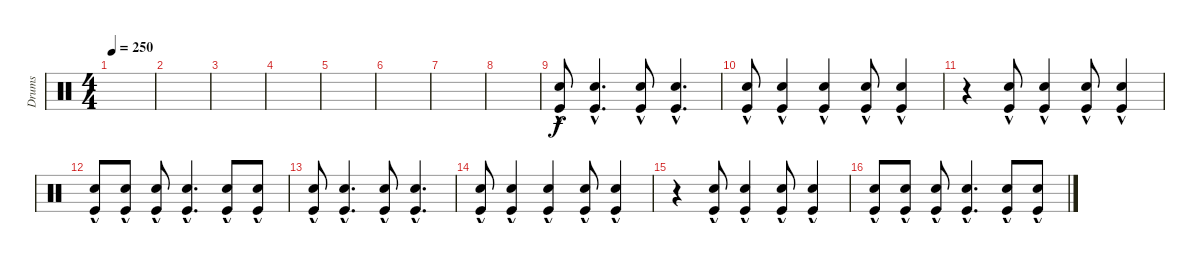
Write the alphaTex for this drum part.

\track ("Drums" "Drums") {instrument percussion}
\staff {score}
\articulation defaults
\ts (4 4)
\tempo 250
\clef neutral
\ks c
|
|
|
|
|
|
|
|
("Kick (hit)"{hac} "Snare (hit) 2"{hac}).8 ("Kick (hit)"{hac} "Snare (hit) 2"{hac}).4{d} ("Kick (hit)"{hac} "Snare (hit) 2"{hac}).8 ("Kick (hit)"{hac} "Snare (hit) 2"{hac}).4{d} |
("Kick (hit)"{hac} "Snare (hit) 2"{hac}).8 ("Kick (hit)"{hac} "Snare (hit) 2"{hac}).4 ("Kick (hit)"{hac} "Snare (hit) 2"{hac}).4 ("Kick (hit)"{hac} "Snare (hit) 2"{hac}).8 ("Kick (hit)"{hac} "Snare (hit) 2"{hac}).4 |
r.4 ("Kick (hit)"{hac} "Snare (hit) 2"{hac}).8 ("Kick (hit)"{hac} "Snare (hit) 2"{hac}).4 ("Kick (hit)"{hac} "Snare (hit) 2"{hac}).8 ("Kick (hit)"{hac} "Snare (hit) 2"{hac}).4 |
("Kick (hit)"{hac} "Snare (hit) 2"{hac}).8 ("Kick (hit)"{hac} "Snare (hit) 2"{hac}).8 ("Kick (hit)"{hac} "Snare (hit) 2"{hac}).8 ("Kick (hit)"{hac} "Snare (hit) 2"{hac}).4{d} ("Kick (hit)"{hac} "Snare (hit) 2"{hac}).8 ("Kick (hit)"{hac} "Snare (hit) 2"{hac}).8 |
("Kick (hit)"{hac} "Snare (hit) 2"{hac}).8 ("Kick (hit)"{hac} "Snare (hit) 2"{hac}).4{d} ("Kick (hit)"{hac} "Snare (hit) 2"{hac}).8 ("Kick (hit)"{hac} "Snare (hit) 2"{hac}).4{d} |
("Kick (hit)"{hac} "Snare (hit) 2"{hac}).8 ("Kick (hit)"{hac} "Snare (hit) 2"{hac}).4 ("Kick (hit)"{hac} "Snare (hit) 2"{hac}).4 ("Kick (hit)"{hac} "Snare (hit) 2"{hac}).8 ("Kick (hit)"{hac} "Snare (hit) 2"{hac}).4 |
r.4 ("Kick (hit)"{hac} "Snare (hit) 2"{hac}).8 ("Kick (hit)"{hac} "Snare (hit) 2"{hac}).4 ("Kick (hit)"{hac} "Snare (hit) 2"{hac}).8 ("Kick (hit)"{hac} "Snare (hit) 2"{hac}).4 |
("Kick (hit)"{hac} "Snare (hit) 2"{hac}).8 ("Kick (hit)"{hac} "Snare (hit) 2"{hac}).8 ("Kick (hit)"{hac} "Snare (hit) 2"{hac}).8 ("Kick (hit)"{hac} "Snare (hit) 2"{hac}).4{d} ("Kick (hit)"{hac} "Snare (hit) 2"{hac}).8 ("Kick (hit)"{hac} "Snare (hit) 2"{hac}).8
